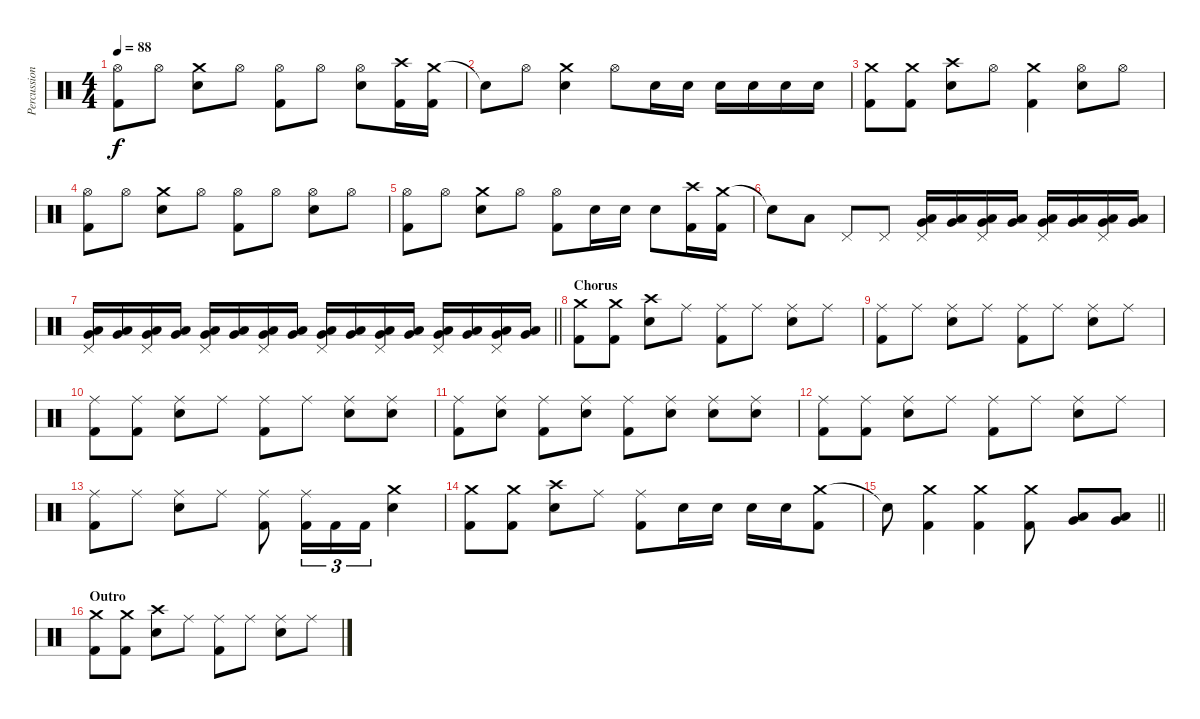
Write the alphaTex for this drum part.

\track ("Percussions" "Percussion") {instrument percussion}
\staff {score}
\articulation defaults
\ts (4 4)
\tempo 88
\clef neutral
\ks c
("Hi-Hat (open)" "Kick (hit) 2").8{dy f} "Hi-Hat (open)".8 ("Crash medium (hit)" "Snare (hit) 2").8 "Hi-Hat (open)".8 ("Hi-Hat (open)" "Kick (hit) 2").8 "Hi-Hat (open)".8 ("Hi-Hat (open)" "Snare (hit) 2").8 ("Crash high (hit)" "Kick (hit) 2").16 ("Crash medium (hit)" "Kick (hit) 2").16 |
"Snare (hit)"{t}.8 "Hi-Hat (open)".8 ("Crash medium (hit)" "Snare (hit) 2").4 "Hi-Hat (open)".8 "Snare (hit) 2".16 "Snare (hit) 2".16 "Snare (hit) 2".16 "Snare (hit) 2".16 "Snare (hit) 2".16 "Snare (hit) 2".16 |
("Crash medium (hit)" "Kick (hit) 2").8 ("Crash medium (hit)" "Kick (hit) 2").8 ("Crash high (hit)" "Snare (hit) 2").8 "Hi-Hat (open)".8 ("Crash medium (hit)" "Kick (hit) 2").4 ("Hi-Hat (open)" "Snare (hit) 2").8 "Hi-Hat (open)".8 |
("Hi-Hat (open)" "Kick (hit) 2").8 "Hi-Hat (open)".8 ("Crash medium (hit)" "Snare (hit) 2").8 "Hi-Hat (open)".8 ("Hi-Hat (open)" "Kick (hit) 2").8 "Hi-Hat (open)".8 ("Hi-Hat (open)" "Snare (hit) 2").8 "Hi-Hat (open)".8 |
("Hi-Hat (open)" "Kick (hit) 2").8 "Hi-Hat (open)".8 ("Crash medium (hit)" "Snare (hit) 2").8 "Hi-Hat (open)".8 ("Hi-Hat (open)" "Kick (hit) 2").8 "Snare (hit) 2".16 "Snare (hit) 2".16 "Snare (hit) 2".8 ("Crash high (hit)" "Kick (hit) 2").16 ("Crash medium (hit)" "Kick (hit) 2").16 |
"Snare (hit)"{t}.8 "Low Tom (hit)".8 "Pedal Hi-Hat (hit)".8 "Pedal Hi-Hat (hit)".8 ("Pedal Hi-Hat (hit)" "Very Low Tom (hit)" "Low Tom (hit)").16 ("Very Low Tom (hit)" "Low Tom (hit)").16 ("Pedal Hi-Hat (hit)" "Very Low Tom (hit)" "Low Tom (hit)").16 ("Very Low Tom (hit)" "Low Tom (hit)").16 ("Pedal Hi-Hat (hit)" "Very Low Tom (hit)" "Low Tom (hit)").16 ("Very Low Tom (hit)" "Low Tom (hit)").16 ("Pedal Hi-Hat (hit)" "Very Low Tom (hit)" "Low Tom (hit)").16 ("Very Low Tom (hit)" "Low Tom (hit)").16 |
\barLineRight lightlight
("Pedal Hi-Hat (hit)" "Very Low Tom (hit)" "Low Tom (hit)").16 ("Very Low Tom (hit)" "Low Tom (hit)").16 ("Pedal Hi-Hat (hit)" "Very Low Tom (hit)" "Low Tom (hit)").16 ("Very Low Tom (hit)" "Low Tom (hit)").16 ("Pedal Hi-Hat (hit)" "Very Low Tom (hit)" "Low Tom (hit)").16 ("Very Low Tom (hit)" "Low Tom (hit)").16 ("Pedal Hi-Hat (hit)" "Very Low Tom (hit)" "Low Tom (hit)").16 ("Very Low Tom (hit)" "Low Tom (hit)").16 ("Pedal Hi-Hat (hit)" "Very Low Tom (hit)" "Low Tom (hit)").16 ("Very Low Tom (hit)" "Low Tom (hit)").16 ("Pedal Hi-Hat (hit)" "Very Low Tom (hit)" "Low Tom (hit)").16 ("Very Low Tom (hit)" "Low Tom (hit)").16 ("Pedal Hi-Hat (hit)" "Very Low Tom (hit)" "Low Tom (hit)").16 ("Very Low Tom (hit)" "Low Tom (hit)").16 ("Pedal Hi-Hat (hit)" "Very Low Tom (hit)" "Low Tom (hit)").16 ("Very Low Tom (hit)" "Low Tom (hit)").16 |
\section ("" "Chorus")
("Crash medium (hit)" "Kick (hit) 2").8 ("Crash medium (hit)" "Kick (hit) 2").8 ("Crash high (hit)" "Snare (hit) 2").8 "Ride (middle)".8 ("Ride (middle)" "Kick (hit) 2").8 "Ride (middle)".8 ("Ride (middle)" "Snare (hit) 2").8 "Ride (middle)".8 |
("Ride (middle)" "Kick (hit) 2").8 "Ride (middle)".8 ("Ride (middle)" "Snare (hit) 2").8 "Ride (middle)".8 ("Ride (middle)" "Kick (hit) 2").8 "Ride (middle)".8 ("Ride (middle)" "Snare (hit) 2").8 "Ride (middle)".8 |
("Ride (middle)" "Kick (hit) 2").8 ("Ride (middle)" "Kick (hit) 2").8 ("Ride (middle)" "Snare (hit) 2").8 "Ride (middle)".8 ("Ride (middle)" "Kick (hit) 2").8 "Ride (middle)".8 ("Ride (middle)" "Snare (hit) 2").8 ("Ride (middle)" "Snare (hit) 2").8 |
("Ride (middle)" "Kick (hit) 2").8 ("Ride (middle)" "Snare (hit) 2").8 ("Ride (middle)" "Kick (hit) 2").8 ("Ride (middle)" "Snare (hit) 2").8 ("Ride (middle)" "Kick (hit) 2").8 ("Ride (middle)" "Snare (hit) 2").8 ("Ride (middle)" "Snare (hit) 2").8 ("Ride (middle)" "Snare (hit) 2").8 |
("Ride (middle)" "Kick (hit) 2").8 ("Ride (middle)" "Kick (hit) 2").8 ("Ride (middle)" "Snare (hit) 2").8 "Ride (middle)".8 ("Ride (middle)" "Kick (hit) 2").8 "Ride (middle)".8 ("Ride (middle)" "Snare (hit) 2").8 "Ride (middle)".8 |
("Ride (middle)" "Kick (hit) 2").8 "Ride (middle)".8 ("Ride (middle)" "Snare (hit) 2").8 "Ride (middle)".8 ("Ride (middle)" "Kick (hit) 2").8 ("Ride (middle)" "Kick (hit) 2").16{tu (3 2)} "Kick (hit) 2".16{tu (3 2)} "Kick (hit) 2".16{tu (3 2)} ("Crash medium (hit)" "Snare (hit) 2").4 |
("Crash medium (hit)" "Kick (hit) 2").8 ("Crash medium (hit)" "Kick (hit) 2").8 ("Crash high (hit)" "Snare (hit) 2").8 "Ride (middle)".8 ("Ride (middle)" "Kick (hit) 2").8 "Snare (hit) 2".16 "Snare (hit) 2".16 "Snare (hit) 2".16 "Snare (hit) 2".16 ("Crash medium (hit)" "Kick (hit) 2").8 |
\barLineRight lightlight "Snare (hit)"{t}.8
("Crash medium (hit)" "Kick (hit) 2").4 ("Crash medium (hit)" "Kick (hit) 2").4 ("Crash medium (hit)" "Kick (hit) 2").8 ("Low Tom (hit)" "Very Low Tom (hit)").8 ("Low Tom (hit)" "Very Low Tom (hit)").8 |
\section ("" "Outro")
("Crash medium (hit)" "Kick (hit) 2").8 ("Crash medium (hit)" "Kick (hit) 2").8 ("Crash high (hit)" "Snare (hit) 2").8 "Ride (middle)".8 ("Ride (middle)" "Kick (hit) 2").8 "Ride (middle)".8 ("Ride (middle)" "Snare (hit) 2").8 "Ride (middle)".8
